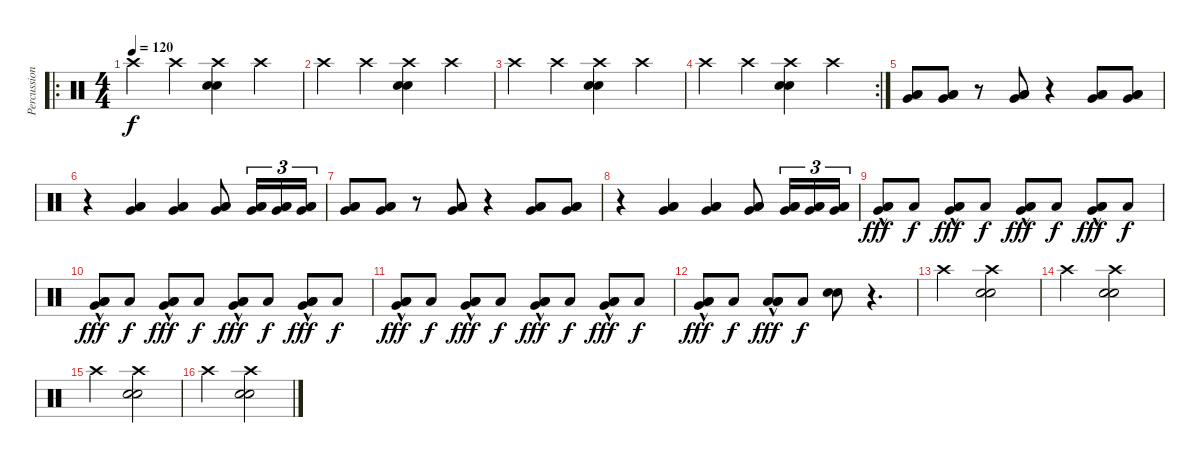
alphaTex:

\track ("Percussion" "Percussion") {instrument percussion}
\staff {score}
\articulation defaults
\ro
\ts (4 4)
\tempo 120
\clef neutral
\ks c "Crash high (hit)".4{dy f} "Crash high (hit)".4
("Electric Snare (hit)" "Crash high (hit)" "Electric Snare (hit)").4 "Crash high (hit)".4 |
"Crash high (hit)".4 "Crash high (hit)".4 ("Electric Snare (hit)" "Crash high (hit)" "Electric Snare (hit)").4 "Crash high (hit)".4 |
"Crash high (hit)".4 "Crash high (hit)".4 ("Electric Snare (hit)" "Crash high (hit)" "Electric Snare (hit)").4 "Crash high (hit)".4 |
\rc 2 "Crash high (hit)".4 "Crash high (hit)".4
("Electric Snare (hit)" "Crash high (hit)" "Electric Snare (hit)").4 "Crash high (hit)".4 |
("Very Low Tom (hit)" "Low Floor Tom (hit)" "Low Floor Tom (hit)").8 ("Very Low Tom (hit)" "Low Floor Tom (hit)" "Low Floor Tom (hit)").8 r.8 ("Very Low Tom (hit)" "Low Floor Tom (hit)" "Low Floor Tom (hit)").8 r.4 ("Very Low Tom (hit)" "Low Floor Tom (hit)" "Low Floor Tom (hit)").8 ("Very Low Tom (hit)" "Low Floor Tom (hit)" "Low Floor Tom (hit)").8 |
r.4 ("Very Low Tom (hit)" "Low Floor Tom (hit)" "Low Floor Tom (hit)").4 ("Very Low Tom (hit)" "Low Floor Tom (hit)" "Low Floor Tom (hit)").4 ("Very Low Tom (hit)" "Low Floor Tom (hit)" "Low Floor Tom (hit)").8 ("Very Low Tom (hit)" "Low Floor Tom (hit)" "Low Floor Tom (hit)").16{tu (3 2)} ("Very Low Tom (hit)" "Low Floor Tom (hit)" "Low Floor Tom (hit)").16{tu (3 2)} ("Very Low Tom (hit)" "Low Floor Tom (hit)" "Low Floor Tom (hit)").16{tu (3 2)} |
("Very Low Tom (hit)" "Low Floor Tom (hit)" "Low Floor Tom (hit)").8 ("Very Low Tom (hit)" "Low Floor Tom (hit)" "Low Floor Tom (hit)").8 r.8 ("Very Low Tom (hit)" "Low Floor Tom (hit)" "Low Floor Tom (hit)").8 r.4 ("Very Low Tom (hit)" "Low Floor Tom (hit)" "Low Floor Tom (hit)").8 ("Very Low Tom (hit)" "Low Floor Tom (hit)" "Low Floor Tom (hit)").8 |
r.4 ("Very Low Tom (hit)" "Low Floor Tom (hit)" "Low Floor Tom (hit)").4 ("Very Low Tom (hit)" "Low Floor Tom (hit)" "Low Floor Tom (hit)").4 ("Very Low Tom (hit)" "Low Floor Tom (hit)" "Low Floor Tom (hit)").8 ("Very Low Tom (hit)" "Low Floor Tom (hit)" "Low Floor Tom (hit)").16{tu (3 2)} ("Very Low Tom (hit)" "Low Floor Tom (hit)" "Low Floor Tom (hit)").16{tu (3 2)} ("Very Low Tom (hit)" "Low Floor Tom (hit)" "Low Floor Tom (hit)").16{tu (3 2)} |
("Very Low Tom (hit)" "Low Floor Tom (hit)" "Low Floor Tom (hit)"{hac}).8{dy fff} "Low Floor Tom (hit)".8{dy f} ("Very Low Tom (hit)" "Low Floor Tom (hit)" "Low Floor Tom (hit)"{hac}).8{dy fff} "Low Floor Tom (hit)".8{dy f} ("Very Low Tom (hit)" "Low Floor Tom (hit)" "Low Floor Tom (hit)"{hac}).8{dy fff} "Low Floor Tom (hit)".8{dy f} ("Very Low Tom (hit)" "Low Floor Tom (hit)" "Low Floor Tom (hit)"{hac}).8{dy fff} "Low Floor Tom (hit)".8{dy f} |
("Very Low Tom (hit)" "Low Floor Tom (hit)" "Low Floor Tom (hit)"{hac}).8{dy fff} "Low Floor Tom (hit)".8{dy f} ("Very Low Tom (hit)" "Low Floor Tom (hit)" "Low Floor Tom (hit)"{hac}).8{dy fff} "Low Floor Tom (hit)".8{dy f} ("Very Low Tom (hit)" "Low Floor Tom (hit)" "Low Floor Tom (hit)"{hac}).8{dy fff} "Low Floor Tom (hit)".8{dy f} ("Very Low Tom (hit)" "Low Floor Tom (hit)" "Low Floor Tom (hit)"{hac}).8{dy fff} "Low Floor Tom (hit)".8{dy f} |
("Very Low Tom (hit)" "Low Floor Tom (hit)" "Low Floor Tom (hit)"{hac}).8{dy fff} "Low Floor Tom (hit)".8{dy f} ("Very Low Tom (hit)" "Low Floor Tom (hit)" "Low Floor Tom (hit)"{hac}).8{dy fff} "Low Floor Tom (hit)".8{dy f} ("Very Low Tom (hit)" "Low Floor Tom (hit)" "Low Floor Tom (hit)"{hac}).8{dy fff} "Low Floor Tom (hit)".8{dy f} ("Very Low Tom (hit)" "Low Floor Tom (hit)" "Low Floor Tom (hit)"{hac}).8{dy fff} "Low Floor Tom (hit)".8{dy f} |
("Very Low Tom (hit)" "Low Floor Tom (hit)" "Low Floor Tom (hit)"{hac}).8{dy fff} "Low Floor Tom (hit)".8{dy f} ("Low Floor Tom (hit)" "Low Floor Tom (hit)" "Low Floor Tom (hit)"{hac}).8{dy fff} "Low Floor Tom (hit)".8{dy f} ("Electric Snare (hit)" "Electric Snare (hit)").8 r.4{d} |
"Crash high (hit)".2 ("Electric Snare (hit)" "Crash high (hit)" "Electric Snare (hit)").2 |
"Crash high (hit)".2 ("Electric Snare (hit)" "Crash high (hit)" "Electric Snare (hit)").2 |
"Crash high (hit)".2 ("Electric Snare (hit)" "Crash high (hit)" "Electric Snare (hit)").2 |
"Crash high (hit)".2 ("Electric Snare (hit)" "Crash high (hit)" "Snare (hit) 2").2
